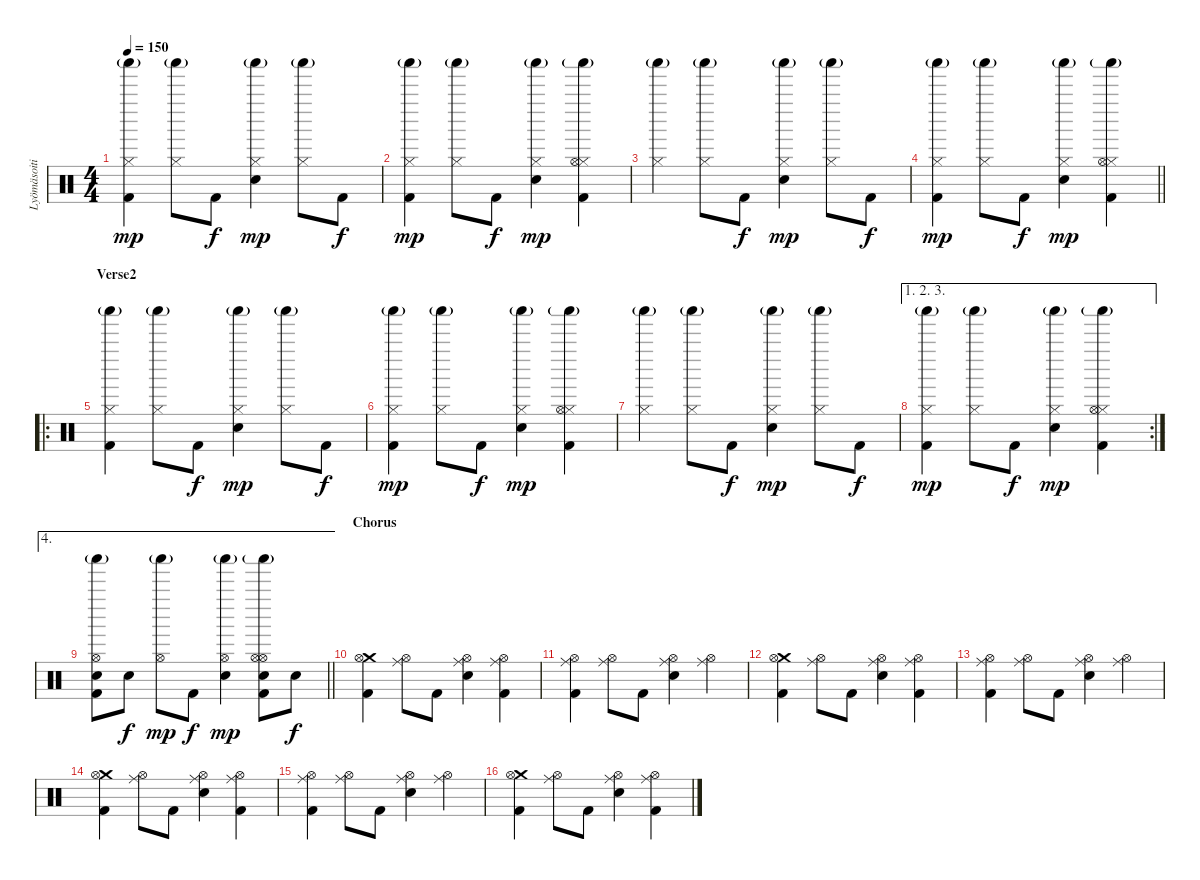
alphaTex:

\track ("Lyömäsoitin" "Lyömäsoiti") {instrument percussion}
\staff
\articulation defaults
\ts (4 4)
\tempo 150
\clef neutral
\ks c
("Hi-Hat (closed)" "Shaker (hit)"{g} "Kick (hit) 2").4{dy mp} ("Hi-Hat (closed)" "Shaker (hit)"{g}).8 "Kick (hit) 2".8{dy f} ("Hi-Hat (closed)" "Snare (hit) 2" "Shaker (hit)"{g}).4{dy mp} ("Hi-Hat (closed)" "Shaker (hit)"{g}).8 "Kick (hit) 2".8{dy f} |
("Hi-Hat (closed)" "Shaker (hit)"{g} "Kick (hit) 2").4{dy mp} ("Hi-Hat (closed)" "Shaker (hit)"{g}).8 "Kick (hit) 2".8{dy f} ("Hi-Hat (closed)" "Snare (hit) 2" "Shaker (hit)"{g}).4{dy mp} ("Hi-Hat (closed)" "Hi-Hat (open)" "Shaker (hit)"{g} "Kick (hit) 2").4 |
("Hi-Hat (closed)" "Shaker (hit)"{g}).4 ("Hi-Hat (closed)" "Shaker (hit)"{g}).8 "Kick (hit) 2".8{dy f} ("Hi-Hat (closed)" "Snare (hit) 2" "Shaker (hit)"{g}).4{dy mp} ("Hi-Hat (closed)" "Shaker (hit)"{g}).8 "Kick (hit) 2".8{dy f} |
\barLineRight lightlight
("Hi-Hat (closed)" "Shaker (hit)"{g} "Kick (hit) 2").4{dy mp} ("Hi-Hat (closed)" "Shaker (hit)"{g}).8 "Kick (hit) 2".8{dy f} ("Hi-Hat (closed)" "Snare (hit) 2" "Shaker (hit)"{g}).4{dy mp} ("Hi-Hat (closed)" "Hi-Hat (open)" "Shaker (hit)"{g} "Kick (hit) 2").4 |
\ro
\section ("" "Verse2")
("Hi-Hat (closed)" "Shaker (hit)"{g} "Kick (hit) 2").4 ("Hi-Hat (closed)" "Shaker (hit)"{g}).8 "Kick (hit) 2".8{dy f} ("Hi-Hat (closed)" "Snare (hit) 2" "Shaker (hit)"{g}).4{dy mp} ("Hi-Hat (closed)" "Shaker (hit)"{g}).8 "Kick (hit) 2".8{dy f} |
("Hi-Hat (closed)" "Shaker (hit)"{g} "Kick (hit) 2").4{dy mp} ("Hi-Hat (closed)" "Shaker (hit)"{g}).8 "Kick (hit) 2".8{dy f} ("Hi-Hat (closed)" "Snare (hit) 2" "Shaker (hit)"{g}).4{dy mp} ("Hi-Hat (closed)" "Hi-Hat (open)" "Shaker (hit)"{g} "Kick (hit) 2").4 |
("Hi-Hat (closed)" "Shaker (hit)"{g}).4 ("Hi-Hat (closed)" "Shaker (hit)"{g}).8 "Kick (hit) 2".8{dy f} ("Hi-Hat (closed)" "Snare (hit) 2" "Shaker (hit)"{g}).4{dy mp} ("Hi-Hat (closed)" "Shaker (hit)"{g}).8 "Kick (hit) 2".8{dy f} |
\ae (1 2 3)
\rc 2
("Hi-Hat (closed)" "Shaker (hit)"{g} "Kick (hit) 2").4{dy mp} ("Hi-Hat (closed)" "Shaker (hit)"{g}).8 "Kick (hit) 2".8{dy f} ("Hi-Hat (closed)" "Snare (hit) 2" "Shaker (hit)"{g}).4{dy mp} ("Hi-Hat (closed)" "Hi-Hat (open)" "Shaker (hit)"{g} "Kick (hit) 2").4 |
\ae 4
\barLineRight lightlight
("Hi-Hat (open)" "Snare (hit) 2" "Shaker (hit)"{g} "Kick (hit) 2").8 "Snare (hit) 2".8{dy f} ("Hi-Hat (open)" "Shaker (hit)"{g}).8{dy mp} "Kick (hit) 2".8{dy f} ("Hi-Hat (open)" "Snare (hit) 2" "Shaker (hit)"{g}).4{dy mp} ("Hi-Hat (open)" "Hi-Hat (open)" "Snare (hit) 2" "Shaker (hit)"{g} "Kick (hit) 2").8 "Snare (hit) 2".8{dy f} |
\section ("" "Chorus")
("Crash medium (hit)" "Hi-Hat (open)" "Kick (hit) 2").4 ("Ride (middle)" "Hi-Hat (open)").8 "Kick (hit) 2".8 ("Ride (middle)" "Hi-Hat (open)" "Snare (hit) 2").4 ("Ride (middle)" "Hi-Hat (open)" "Kick (hit) 2").4 |
("Ride (middle)" "Hi-Hat (open)" "Kick (hit) 2").4 ("Ride (middle)" "Hi-Hat (open)").8 "Kick (hit) 2".8 ("Ride (middle)" "Hi-Hat (open)" "Snare (hit) 2").4 ("Ride (middle)" "Hi-Hat (open)").4 |
("Crash medium (hit)" "Hi-Hat (open)" "Kick (hit) 2").4 ("Ride (middle)" "Hi-Hat (open)").8 "Kick (hit) 2".8 ("Ride (middle)" "Hi-Hat (open)" "Snare (hit) 2").4 ("Ride (middle)" "Hi-Hat (open)" "Kick (hit) 2").4 |
("Ride (middle)" "Hi-Hat (open)" "Kick (hit) 2").4 ("Ride (middle)" "Hi-Hat (open)").8 "Kick (hit) 2".8 ("Ride (middle)" "Hi-Hat (open)" "Snare (hit) 2").4 ("Ride (middle)" "Hi-Hat (open)").4 |
("Crash medium (hit)" "Hi-Hat (open)" "Kick (hit) 2").4 ("Ride (middle)" "Hi-Hat (open)").8 "Kick (hit) 2".8 ("Ride (middle)" "Hi-Hat (open)" "Snare (hit) 2").4 ("Ride (middle)" "Hi-Hat (open)" "Kick (hit) 2").4 |
("Ride (middle)" "Hi-Hat (open)" "Kick (hit) 2").4 ("Ride (middle)" "Hi-Hat (open)").8 "Kick (hit) 2".8 ("Ride (middle)" "Hi-Hat (open)" "Snare (hit) 2").4 ("Ride (middle)" "Hi-Hat (open)").4 |
("Crash medium (hit)" "Hi-Hat (open)" "Kick (hit) 2").4 ("Ride (middle)" "Hi-Hat (open)").8 "Kick (hit) 2".8 ("Ride (middle)" "Hi-Hat (open)" "Snare (hit) 2").4 ("Ride (middle)" "Hi-Hat (open)" "Kick (hit) 2").4
